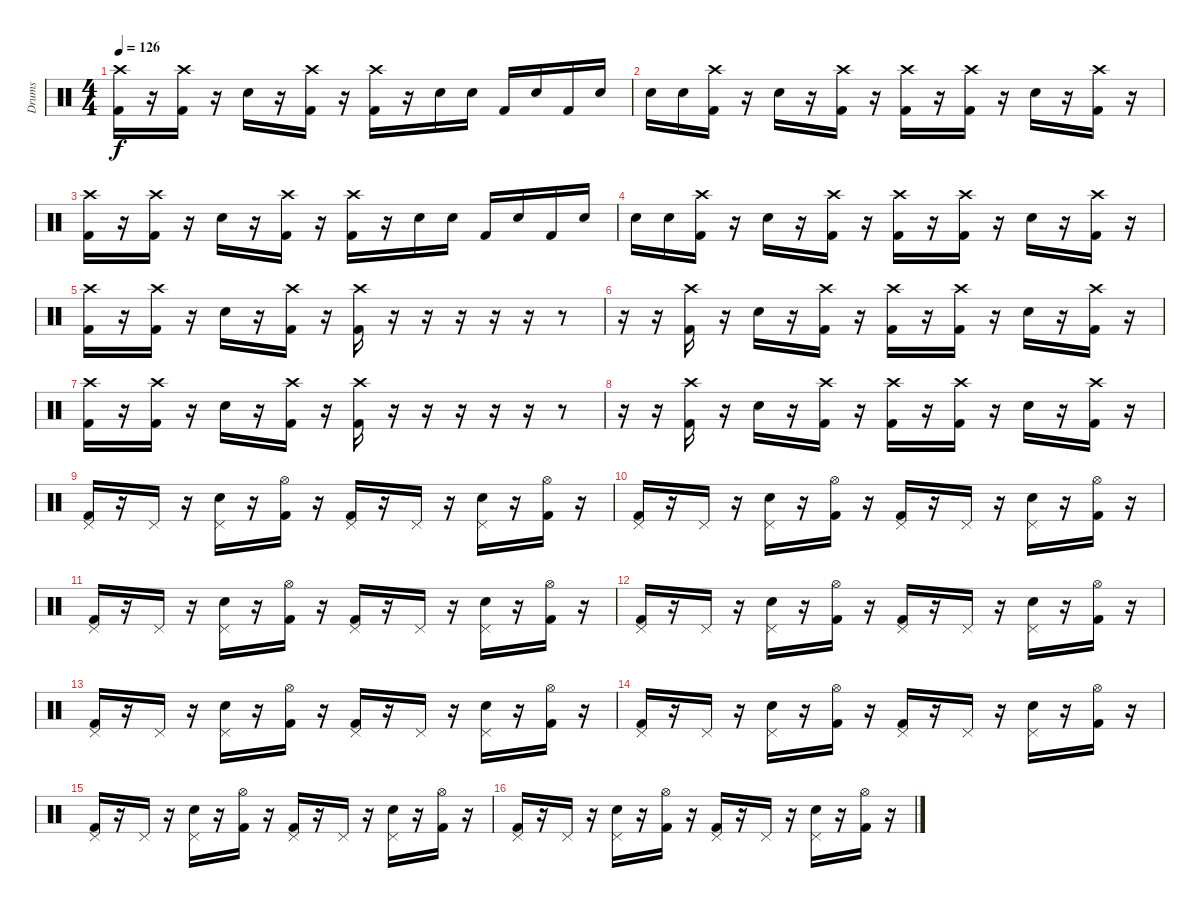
\track ("Drums" "Drums") {instrument percussion}
\staff {score}
\articulation defaults
\ts (4 4)
\tempo 126
\clef neutral
\ks c
("Crash high (hit)" "Kick (hit) 2").16{dy f} r.16 ("Crash high (hit)" "Kick (hit) 2").16 r.16 "Electric Snare (hit)".16 r.16 ("Crash high (hit)" "Kick (hit) 2").16 r.16 ("Crash high (hit)" "Kick (hit) 2").16 r.16 "Electric Snare (hit)".16 "Electric Snare (hit)".16 "Kick (hit) 2".16 "Electric Snare (hit)".16 "Kick (hit) 2".16 "Electric Snare (hit)".16 |
"Electric Snare (hit)".16 "Electric Snare (hit)".16 ("Crash high (hit)" "Kick (hit) 2").16 r.16 "Electric Snare (hit)".16 r.16 ("Crash high (hit)" "Kick (hit) 2").16 r.16 ("Crash high (hit)" "Kick (hit) 2").16 r.16 ("Crash high (hit)" "Kick (hit) 2").16 r.16 "Electric Snare (hit)".16 r.16 ("Crash high (hit)" "Kick (hit) 2").16 r.16 |
("Crash high (hit)" "Kick (hit) 2").16 r.16 ("Crash high (hit)" "Kick (hit) 2").16 r.16 "Electric Snare (hit)".16 r.16 ("Crash high (hit)" "Kick (hit) 2").16 r.16 ("Crash high (hit)" "Kick (hit) 2").16 r.16 "Electric Snare (hit)".16 "Electric Snare (hit)".16 "Kick (hit) 2".16 "Electric Snare (hit)".16 "Kick (hit) 2".16 "Electric Snare (hit)".16 |
"Electric Snare (hit)".16 "Electric Snare (hit)".16 ("Crash high (hit)" "Kick (hit) 2").16 r.16 "Electric Snare (hit)".16 r.16 ("Crash high (hit)" "Kick (hit) 2").16 r.16 ("Crash high (hit)" "Kick (hit) 2").16 r.16 ("Crash high (hit)" "Kick (hit) 2").16 r.16 "Electric Snare (hit)".16 r.16 ("Crash high (hit)" "Kick (hit) 2").16 r.16 |
("Crash high (hit)" "Kick (hit) 2").16 r.16 ("Crash high (hit)" "Kick (hit) 2").16 r.16 "Electric Snare (hit)".16 r.16 ("Crash high (hit)" "Kick (hit) 2").16 r.16 ("Crash high (hit)" "Kick (hit) 2").16 r.16 r.16 r.16 r.16 r.16 r.8 |
r.16 r.16 ("Crash high (hit)" "Kick (hit) 2").16 r.16 "Electric Snare (hit)".16 r.16 ("Crash high (hit)" "Kick (hit) 2").16 r.16 ("Crash high (hit)" "Kick (hit) 2").16 r.16 ("Crash high (hit)" "Kick (hit) 2").16 r.16 "Electric Snare (hit)".16 r.16 ("Crash high (hit)" "Kick (hit) 2").16 r.16 |
("Crash high (hit)" "Kick (hit) 2").16 r.16 ("Crash high (hit)" "Kick (hit) 2").16 r.16 "Electric Snare (hit)".16 r.16 ("Crash high (hit)" "Kick (hit) 2").16 r.16 ("Crash high (hit)" "Kick (hit) 2").16 r.16 r.16 r.16 r.16 r.16 r.8 |
r.16 r.16 ("Crash high (hit)" "Kick (hit) 2").16 r.16 "Electric Snare (hit)".16 r.16 ("Crash high (hit)" "Kick (hit) 2").16 r.16 ("Crash high (hit)" "Kick (hit) 2").16 r.16 ("Crash high (hit)" "Kick (hit) 2").16 r.16 "Electric Snare (hit)".16 r.16 ("Crash high (hit)" "Kick (hit) 2").16 r.16 |
("Pedal Hi-Hat (hit)" "Kick (hit) 2").16 r.16 "Pedal Hi-Hat (hit)".16 r.16 ("Pedal Hi-Hat (hit)" "Electric Snare (hit)").16 r.16 ("Hi-Hat (open)" "Kick (hit) 2").16 r.16 ("Pedal Hi-Hat (hit)" "Kick (hit) 2").16 r.16 "Pedal Hi-Hat (hit)".16 r.16 ("Pedal Hi-Hat (hit)" "Electric Snare (hit)").16 r.16 ("Hi-Hat (open)" "Kick (hit) 2").16 r.16 |
("Pedal Hi-Hat (hit)" "Kick (hit) 2").16 r.16 "Pedal Hi-Hat (hit)".16 r.16 ("Pedal Hi-Hat (hit)" "Electric Snare (hit)").16 r.16 ("Hi-Hat (open)" "Kick (hit) 2").16 r.16 ("Pedal Hi-Hat (hit)" "Kick (hit) 2").16 r.16 "Pedal Hi-Hat (hit)".16 r.16 ("Pedal Hi-Hat (hit)" "Electric Snare (hit)").16 r.16 ("Hi-Hat (open)" "Kick (hit) 2").16 r.16 |
("Pedal Hi-Hat (hit)" "Kick (hit) 2").16 r.16 "Pedal Hi-Hat (hit)".16 r.16 ("Pedal Hi-Hat (hit)" "Electric Snare (hit)").16 r.16 ("Hi-Hat (open)" "Kick (hit) 2").16 r.16 ("Pedal Hi-Hat (hit)" "Kick (hit) 2").16 r.16 "Pedal Hi-Hat (hit)".16 r.16 ("Pedal Hi-Hat (hit)" "Electric Snare (hit)").16 r.16 ("Hi-Hat (open)" "Kick (hit) 2").16 r.16 |
("Pedal Hi-Hat (hit)" "Kick (hit) 2").16 r.16 "Pedal Hi-Hat (hit)".16 r.16 ("Pedal Hi-Hat (hit)" "Electric Snare (hit)").16 r.16 ("Hi-Hat (open)" "Kick (hit) 2").16 r.16 ("Pedal Hi-Hat (hit)" "Kick (hit) 2").16 r.16 "Pedal Hi-Hat (hit)".16 r.16 ("Pedal Hi-Hat (hit)" "Electric Snare (hit)").16 r.16 ("Hi-Hat (open)" "Kick (hit) 2").16 r.16 |
("Pedal Hi-Hat (hit)" "Kick (hit) 2").16 r.16 "Pedal Hi-Hat (hit)".16 r.16 ("Pedal Hi-Hat (hit)" "Electric Snare (hit)").16 r.16 ("Hi-Hat (open)" "Kick (hit) 2").16 r.16 ("Pedal Hi-Hat (hit)" "Kick (hit) 2").16 r.16 "Pedal Hi-Hat (hit)".16 r.16 ("Pedal Hi-Hat (hit)" "Electric Snare (hit)").16 r.16 ("Hi-Hat (open)" "Kick (hit) 2").16 r.16 |
("Pedal Hi-Hat (hit)" "Kick (hit) 2").16 r.16 "Pedal Hi-Hat (hit)".16 r.16 ("Pedal Hi-Hat (hit)" "Electric Snare (hit)").16 r.16 ("Hi-Hat (open)" "Kick (hit) 2").16 r.16 ("Pedal Hi-Hat (hit)" "Kick (hit) 2").16 r.16 "Pedal Hi-Hat (hit)".16 r.16 ("Pedal Hi-Hat (hit)" "Electric Snare (hit)").16 r.16 ("Hi-Hat (open)" "Kick (hit) 2").16 r.16 |
("Pedal Hi-Hat (hit)" "Kick (hit) 2").16 r.16 "Pedal Hi-Hat (hit)".16 r.16 ("Pedal Hi-Hat (hit)" "Electric Snare (hit)").16 r.16 ("Hi-Hat (open)" "Kick (hit) 2").16 r.16 ("Pedal Hi-Hat (hit)" "Kick (hit) 2").16 r.16 "Pedal Hi-Hat (hit)".16 r.16 ("Pedal Hi-Hat (hit)" "Electric Snare (hit)").16 r.16 ("Hi-Hat (open)" "Kick (hit) 2").16 r.16 |
("Pedal Hi-Hat (hit)" "Kick (hit) 2").16 r.16 "Pedal Hi-Hat (hit)".16 r.16 ("Pedal Hi-Hat (hit)" "Electric Snare (hit)").16 r.16 ("Hi-Hat (open)" "Kick (hit) 2").16 r.16 ("Pedal Hi-Hat (hit)" "Kick (hit) 2").16 r.16 "Pedal Hi-Hat (hit)".16 r.16 ("Pedal Hi-Hat (hit)" "Electric Snare (hit)").16 r.16 ("Hi-Hat (open)" "Kick (hit) 2").16 r.16
